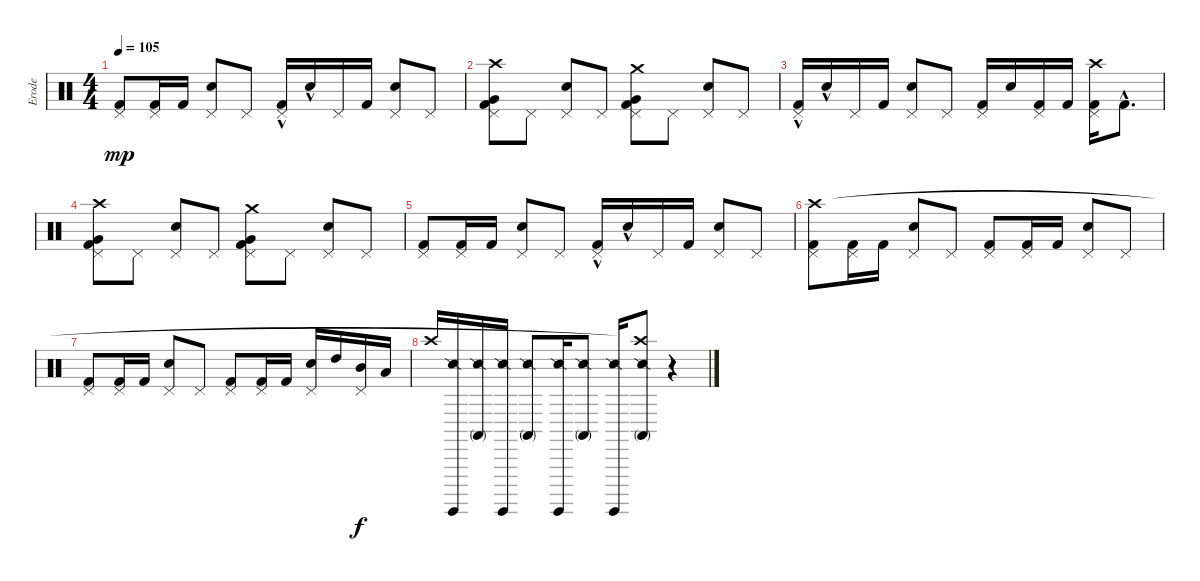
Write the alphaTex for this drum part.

\track ("Erode" "Erode") {instrument percussion}
\staff {score}
\articulation defaults
\ts (4 4)
\tempo 105
\clef neutral
\ks c
("Kick (hit) 2" "Pedal Hi-Hat (hit)").8{dy mp} ("Kick (hit) 2" "Pedal Hi-Hat (hit)").16 "Kick (hit) 2".16 ("Snare (hit) 2" "Pedal Hi-Hat (hit)").8 "Pedal Hi-Hat (hit)".8 ("Kick (hit) 2"{hac} "Pedal Hi-Hat (hit)").16 "Snare (hit) 2"{hac}.16 "Pedal Hi-Hat (hit)".16 "Kick (hit) 2".16 ("Snare (hit) 2" "Pedal Hi-Hat (hit)").8 "Pedal Hi-Hat (hit)".8 |
("Kick (hit) 2" "Very Low Tom (hit)" "Pedal Hi-Hat (hit)" "Crash high (hit)").8 "Pedal Hi-Hat (hit)".8 ("Snare (hit) 2" "Pedal Hi-Hat (hit)").8 "Pedal Hi-Hat (hit)".8 ("Kick (hit) 2" "Very Low Tom (hit)" "Pedal Hi-Hat (hit)" "Crash medium (hit)").8 "Pedal Hi-Hat (hit)".8 ("Snare (hit) 2" "Pedal Hi-Hat (hit)").8 "Pedal Hi-Hat (hit)".8 |
("Kick (hit) 2"{hac} "Pedal Hi-Hat (hit)").16 "Snare (hit) 2"{hac}.16 "Pedal Hi-Hat (hit)".16 "Kick (hit) 2".16 ("Snare (hit) 2" "Pedal Hi-Hat (hit)").8 "Pedal Hi-Hat (hit)".8 ("Kick (hit) 2" "Pedal Hi-Hat (hit)").16 "Snare (hit) 2".16 ("Kick (hit) 2" "Pedal Hi-Hat (hit)").16 "Kick (hit) 2".16 ("Kick (hit) 2" "Pedal Hi-Hat (hit)" "Crash high (hit)").16 "Kick (hit) 2"{hac}.8{d} |
("Kick (hit) 2" "Very Low Tom (hit)" "Pedal Hi-Hat (hit)" "Crash high (hit)").8 "Pedal Hi-Hat (hit)".8 ("Snare (hit) 2" "Pedal Hi-Hat (hit)").8 "Pedal Hi-Hat (hit)".8 ("Kick (hit) 2" "Very Low Tom (hit)" "Pedal Hi-Hat (hit)" "Crash medium (hit)").8 "Pedal Hi-Hat (hit)".8 ("Snare (hit) 2" "Pedal Hi-Hat (hit)").8 "Pedal Hi-Hat (hit)".8 |
("Kick (hit) 2" "Pedal Hi-Hat (hit)").8 ("Kick (hit) 2" "Pedal Hi-Hat (hit)").16 "Kick (hit) 2".16 ("Snare (hit) 2" "Pedal Hi-Hat (hit)").8 "Pedal Hi-Hat (hit)".8 ("Kick (hit) 2"{hac} "Pedal Hi-Hat (hit)").16 "Snare (hit) 2"{hac}.16 "Pedal Hi-Hat (hit)".16 "Kick (hit) 2".16 ("Snare (hit) 2" "Pedal Hi-Hat (hit)").8 "Pedal Hi-Hat (hit)".8 |
("Kick (hit) 2" "Pedal Hi-Hat (hit)" "Crash high (hit)").8 ("Kick (hit) 2" "Pedal Hi-Hat (hit)").16 "Kick (hit) 2".16 ("Snare (hit) 2" "Pedal Hi-Hat (hit)").8 "Pedal Hi-Hat (hit)".8 ("Kick (hit) 2" "Pedal Hi-Hat (hit)").8 ("Kick (hit) 2" "Pedal Hi-Hat (hit)").16 "Kick (hit) 2".16 ("Snare (hit) 2" "Pedal Hi-Hat (hit)").8 "Pedal Hi-Hat (hit)".8 |
("Kick (hit) 2" "Pedal Hi-Hat (hit)").8 ("Kick (hit) 2" "Pedal Hi-Hat (hit)").16 "Kick (hit) 2".16 ("Snare (hit) 2" "Pedal Hi-Hat (hit)").8 "Pedal Hi-Hat (hit)".8 ("Kick (hit) 2" "Pedal Hi-Hat (hit)").8 ("Kick (hit) 2" "Pedal Hi-Hat (hit)").16 "Kick (hit) 2".16 ("Snare (hit) 2" "Pedal Hi-Hat (hit)").16 "High Tom (hit)".16 ("Mid Tom (hit)" "Pedal Hi-Hat (hit)").16{dy f} "Low Tom (hit)".16 |
"Crash high (hit)".16 ("Snare (side stick) 2" "Surdo (hit)").16 ("Snare (side stick) 2" "Conga high (mute)").16 ("Snare (side stick) 2" "Surdo (hit)").16 ("Snare (side stick) 2" "Conga high (mute)").8 ("Snare (side stick) 2" "Surdo (hit)").16 ("Snare (side stick) 2" "Conga high (mute)").8 ("Snare (side stick) 2" "Surdo (hit)").16 ("Snare (side stick) 2" "Conga high (mute)" "Crash high (hit)"{t}).8 r.4
